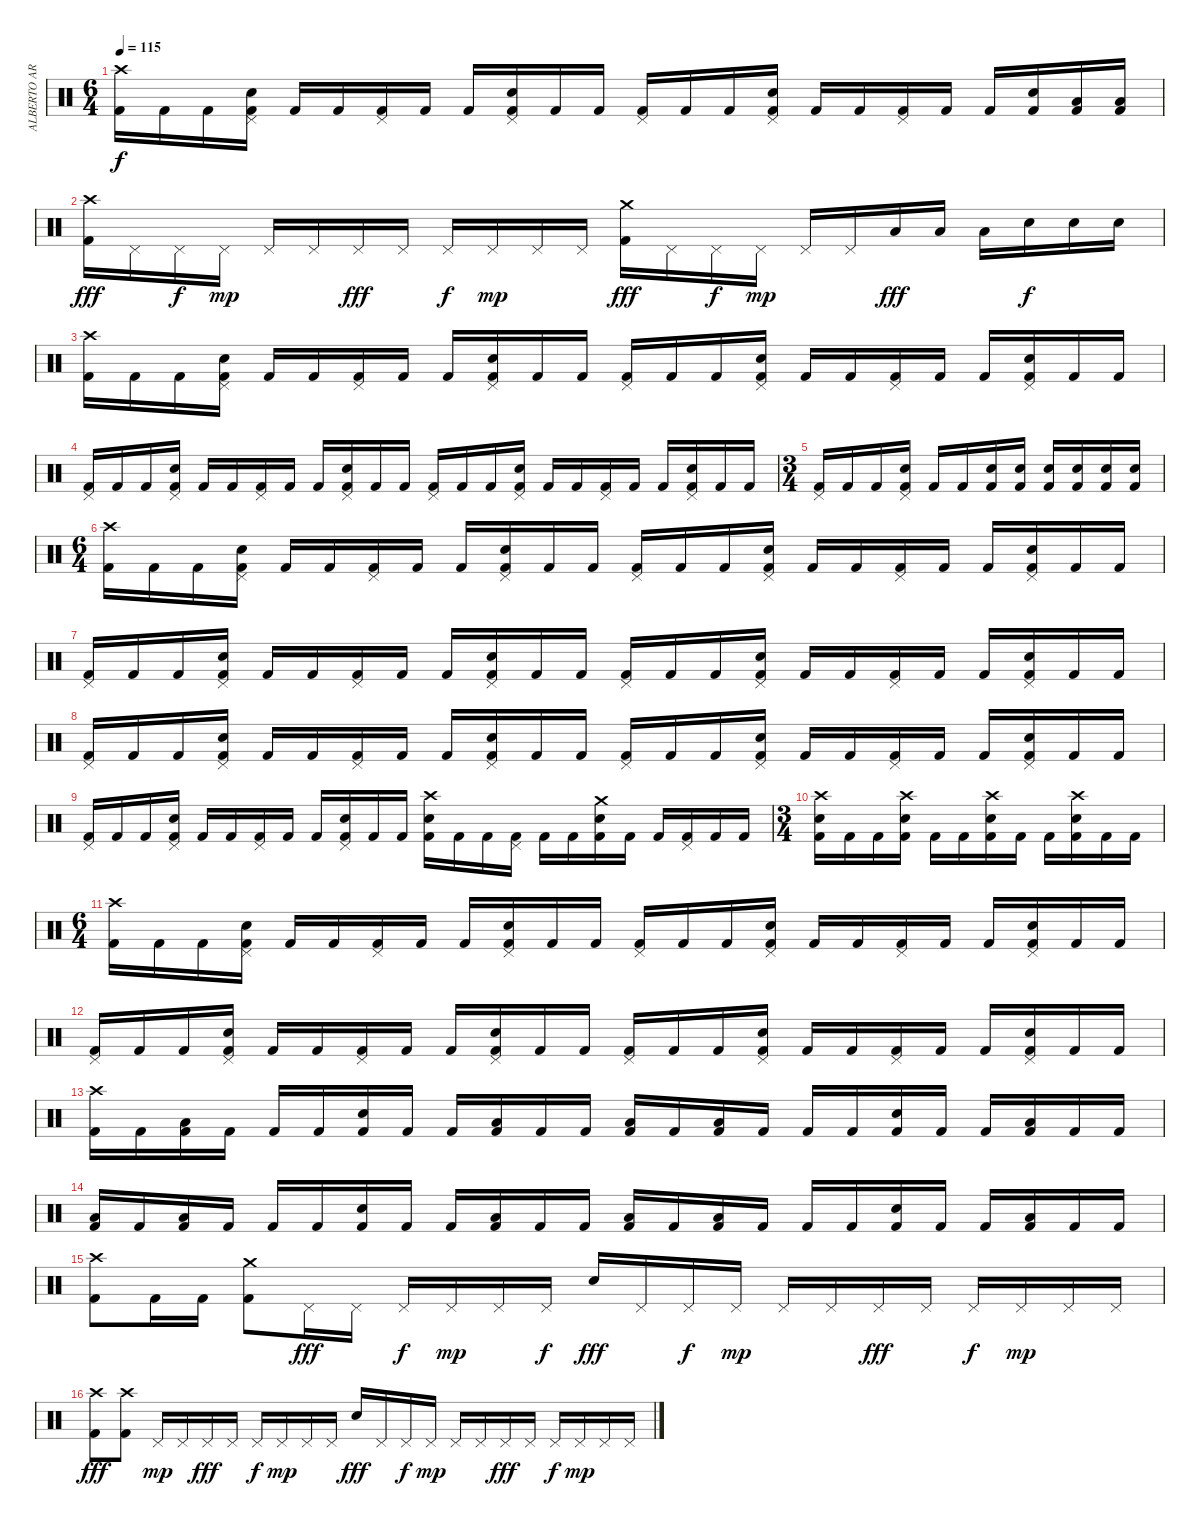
\track ("ALBERTO ARDINES" "ALBERTO AR") {instrument percussion}
\staff {score}
\articulation defaults
\ts (6 4)
\tempo 115
\clef neutral
\ks c
("Crash high (hit)" "Kick (hit) 2").16{dy f} "Kick (hit) 2".16 "Kick (hit) 2".16 ("Pedal Hi-Hat (hit)" "Electric Snare (hit)" "Kick (hit) 2").16 "Kick (hit) 2".16 "Kick (hit) 2".16 ("Pedal Hi-Hat (hit)" "Kick (hit) 2").16 "Kick (hit) 2".16 "Kick (hit) 2".16 ("Pedal Hi-Hat (hit)" "Electric Snare (hit)" "Kick (hit) 2").16 "Kick (hit) 2".16 "Kick (hit) 2".16 ("Pedal Hi-Hat (hit)" "Kick (hit) 2").16 "Kick (hit) 2".16 "Kick (hit) 2".16 ("Pedal Hi-Hat (hit)" "Electric Snare (hit)" "Kick (hit) 2").16 "Kick (hit) 2".16 "Kick (hit) 2".16 ("Pedal Hi-Hat (hit)" "Kick (hit) 2").16 "Kick (hit) 2".16 "Kick (hit) 2".16 ("Electric Snare (hit)" "Kick (hit) 2").16 ("Low Tom (hit)" "Kick (hit) 2").16 ("Low Tom (hit)" "Kick (hit) 2").16 |
("Crash high (hit)" "Kick (hit) 2").16{dy fff} "Pedal Hi-Hat (hit)".16 "Pedal Hi-Hat (hit)".16{dy f} "Pedal Hi-Hat (hit)".16{dy mp} "Pedal Hi-Hat (hit)".16 "Pedal Hi-Hat (hit)".16 "Pedal Hi-Hat (hit)".16{dy fff} "Pedal Hi-Hat (hit)".16 "Pedal Hi-Hat (hit)".16{dy f} "Pedal Hi-Hat (hit)".16{dy mp} "Pedal Hi-Hat (hit)".16 "Pedal Hi-Hat (hit)".16 ("Crash medium (hit)" "Kick (hit) 2").16{dy fff} "Pedal Hi-Hat (hit)".16 "Pedal Hi-Hat (hit)".16{dy f} "Pedal Hi-Hat (hit)".16{dy mp} "Pedal Hi-Hat (hit)".16 "Pedal Hi-Hat (hit)".16 "Low Tom (hit)".16{dy fff} "Low Tom (hit)".16 "Low Tom (hit)".16 "Electric Snare (hit)".16{dy f} "Electric Snare (hit)".16 "Electric Snare (hit)".16 |
("Crash high (hit)" "Kick (hit) 2").16 "Kick (hit) 2".16 "Kick (hit) 2".16 ("Pedal Hi-Hat (hit)" "Electric Snare (hit)" "Kick (hit) 2").16 "Kick (hit) 2".16 "Kick (hit) 2".16 ("Pedal Hi-Hat (hit)" "Kick (hit) 2").16 "Kick (hit) 2".16 "Kick (hit) 2".16 ("Pedal Hi-Hat (hit)" "Electric Snare (hit)" "Kick (hit) 2").16 "Kick (hit) 2".16 "Kick (hit) 2".16 ("Pedal Hi-Hat (hit)" "Kick (hit) 2").16 "Kick (hit) 2".16 "Kick (hit) 2".16 ("Pedal Hi-Hat (hit)" "Electric Snare (hit)" "Kick (hit) 2").16 "Kick (hit) 2".16 "Kick (hit) 2".16 ("Pedal Hi-Hat (hit)" "Kick (hit) 2").16 "Kick (hit) 2".16 "Kick (hit) 2".16 ("Pedal Hi-Hat (hit)" "Electric Snare (hit)" "Kick (hit) 2").16 "Kick (hit) 2".16 "Kick (hit) 2".16 |
("Pedal Hi-Hat (hit)" "Kick (hit) 2").16 "Kick (hit) 2".16 "Kick (hit) 2".16 ("Pedal Hi-Hat (hit)" "Electric Snare (hit)" "Kick (hit) 2").16 "Kick (hit) 2".16 "Kick (hit) 2".16 ("Pedal Hi-Hat (hit)" "Kick (hit) 2").16 "Kick (hit) 2".16 "Kick (hit) 2".16 ("Pedal Hi-Hat (hit)" "Electric Snare (hit)" "Kick (hit) 2").16 "Kick (hit) 2".16 "Kick (hit) 2".16 ("Pedal Hi-Hat (hit)" "Kick (hit) 2").16 "Kick (hit) 2".16 "Kick (hit) 2".16 ("Pedal Hi-Hat (hit)" "Electric Snare (hit)" "Kick (hit) 2").16 "Kick (hit) 2".16 "Kick (hit) 2".16 ("Pedal Hi-Hat (hit)" "Kick (hit) 2").16 "Kick (hit) 2".16 "Kick (hit) 2".16 ("Pedal Hi-Hat (hit)" "Electric Snare (hit)" "Kick (hit) 2").16 "Kick (hit) 2".16 "Kick (hit) 2".16 |
\ts (3 4)
("Pedal Hi-Hat (hit)" "Kick (hit) 2").16 "Kick (hit) 2".16 "Kick (hit) 2".16 ("Pedal Hi-Hat (hit)" "Electric Snare (hit)" "Kick (hit) 2").16 "Kick (hit) 2".16 "Kick (hit) 2".16 ("Electric Snare (hit)" "Kick (hit) 2").16 ("Electric Snare (hit)" "Kick (hit) 2").16 ("Electric Snare (hit)" "Kick (hit) 2").16 ("Electric Snare (hit)" "Kick (hit) 2").16 ("Electric Snare (hit)" "Kick (hit) 2").16 ("Electric Snare (hit)" "Kick (hit) 2").16 |
\ts (6 4)
("Crash high (hit)" "Kick (hit) 2").16 "Kick (hit) 2".16 "Kick (hit) 2".16 ("Pedal Hi-Hat (hit)" "Electric Snare (hit)" "Kick (hit) 2").16 "Kick (hit) 2".16 "Kick (hit) 2".16 ("Pedal Hi-Hat (hit)" "Kick (hit) 2").16 "Kick (hit) 2".16 "Kick (hit) 2".16 ("Pedal Hi-Hat (hit)" "Electric Snare (hit)" "Kick (hit) 2").16 "Kick (hit) 2".16 "Kick (hit) 2".16 ("Pedal Hi-Hat (hit)" "Kick (hit) 2").16 "Kick (hit) 2".16 "Kick (hit) 2".16 ("Pedal Hi-Hat (hit)" "Electric Snare (hit)" "Kick (hit) 2").16 "Kick (hit) 2".16 "Kick (hit) 2".16 ("Pedal Hi-Hat (hit)" "Kick (hit) 2").16 "Kick (hit) 2".16 "Kick (hit) 2".16 ("Pedal Hi-Hat (hit)" "Electric Snare (hit)" "Kick (hit) 2").16 "Kick (hit) 2".16 "Kick (hit) 2".16 |
("Pedal Hi-Hat (hit)" "Kick (hit) 2").16 "Kick (hit) 2".16 "Kick (hit) 2".16 ("Pedal Hi-Hat (hit)" "Electric Snare (hit)" "Kick (hit) 2").16 "Kick (hit) 2".16 "Kick (hit) 2".16 ("Pedal Hi-Hat (hit)" "Kick (hit) 2").16 "Kick (hit) 2".16 "Kick (hit) 2".16 ("Pedal Hi-Hat (hit)" "Electric Snare (hit)" "Kick (hit) 2").16 "Kick (hit) 2".16 "Kick (hit) 2".16 ("Pedal Hi-Hat (hit)" "Kick (hit) 2").16 "Kick (hit) 2".16 "Kick (hit) 2".16 ("Pedal Hi-Hat (hit)" "Electric Snare (hit)" "Kick (hit) 2").16 "Kick (hit) 2".16 "Kick (hit) 2".16 ("Pedal Hi-Hat (hit)" "Kick (hit) 2").16 "Kick (hit) 2".16 "Kick (hit) 2".16 ("Pedal Hi-Hat (hit)" "Electric Snare (hit)" "Kick (hit) 2").16 "Kick (hit) 2".16 "Kick (hit) 2".16 |
("Pedal Hi-Hat (hit)" "Kick (hit) 2").16 "Kick (hit) 2".16 "Kick (hit) 2".16 ("Pedal Hi-Hat (hit)" "Electric Snare (hit)" "Kick (hit) 2").16 "Kick (hit) 2".16 "Kick (hit) 2".16 ("Pedal Hi-Hat (hit)" "Kick (hit) 2").16 "Kick (hit) 2".16 "Kick (hit) 2".16 ("Pedal Hi-Hat (hit)" "Electric Snare (hit)" "Kick (hit) 2").16 "Kick (hit) 2".16 "Kick (hit) 2".16 ("Pedal Hi-Hat (hit)" "Kick (hit) 2").16 "Kick (hit) 2".16 "Kick (hit) 2".16 ("Pedal Hi-Hat (hit)" "Electric Snare (hit)" "Kick (hit) 2").16 "Kick (hit) 2".16 "Kick (hit) 2".16 ("Pedal Hi-Hat (hit)" "Kick (hit) 2").16 "Kick (hit) 2".16 "Kick (hit) 2".16 ("Pedal Hi-Hat (hit)" "Electric Snare (hit)" "Kick (hit) 2").16 "Kick (hit) 2".16 "Kick (hit) 2".16 |
("Pedal Hi-Hat (hit)" "Kick (hit) 2").16 "Kick (hit) 2".16 "Kick (hit) 2".16 ("Pedal Hi-Hat (hit)" "Electric Snare (hit)" "Kick (hit) 2").16 "Kick (hit) 2".16 "Kick (hit) 2".16 ("Pedal Hi-Hat (hit)" "Kick (hit) 2").16 "Kick (hit) 2".16 "Kick (hit) 2".16 ("Pedal Hi-Hat (hit)" "Electric Snare (hit)" "Kick (hit) 2").16 "Kick (hit) 2".16 "Kick (hit) 2".16 ("Crash high (hit)" "Electric Snare (hit)" "Kick (hit) 2").16 "Kick (hit) 2".16 "Kick (hit) 2".16 ("Pedal Hi-Hat (hit)" "Kick (hit) 2").16 "Kick (hit) 2".16 "Kick (hit) 2".16 ("Crash medium (hit)" "Electric Snare (hit)" "Kick (hit) 2").16 "Kick (hit) 2".16 "Kick (hit) 2".16 ("Pedal Hi-Hat (hit)" "Kick (hit) 2").16 "Kick (hit) 2".16 "Kick (hit) 2".16 |
\ts (3 4)
("Crash high (hit)" "Electric Snare (hit)" "Kick (hit) 2").16 "Kick (hit) 2".16 "Kick (hit) 2".16 ("Crash high (hit)" "Electric Snare (hit)" "Kick (hit) 2").16 "Kick (hit) 2".16 "Kick (hit) 2".16 ("Crash high (hit)" "Electric Snare (hit)" "Kick (hit) 2").16 "Kick (hit) 2".16 "Kick (hit) 2".16 ("Crash high (hit)" "Electric Snare (hit)" "Kick (hit) 2").16 "Kick (hit) 2".16 "Kick (hit) 2".16 |
\ts (6 4)
("Crash high (hit)" "Kick (hit) 2").16 "Kick (hit) 2".16 "Kick (hit) 2".16 ("Pedal Hi-Hat (hit)" "Electric Snare (hit)" "Kick (hit) 2").16 "Kick (hit) 2".16 "Kick (hit) 2".16 ("Pedal Hi-Hat (hit)" "Kick (hit) 2").16 "Kick (hit) 2".16 "Kick (hit) 2".16 ("Pedal Hi-Hat (hit)" "Electric Snare (hit)" "Kick (hit) 2").16 "Kick (hit) 2".16 "Kick (hit) 2".16 ("Pedal Hi-Hat (hit)" "Kick (hit) 2").16 "Kick (hit) 2".16 "Kick (hit) 2".16 ("Pedal Hi-Hat (hit)" "Electric Snare (hit)" "Kick (hit) 2").16 "Kick (hit) 2".16 "Kick (hit) 2".16 ("Pedal Hi-Hat (hit)" "Kick (hit) 2").16 "Kick (hit) 2".16 "Kick (hit) 2".16 ("Pedal Hi-Hat (hit)" "Electric Snare (hit)" "Kick (hit) 2").16 "Kick (hit) 2".16 "Kick (hit) 2".16 |
("Pedal Hi-Hat (hit)" "Kick (hit) 2").16 "Kick (hit) 2".16 "Kick (hit) 2".16 ("Pedal Hi-Hat (hit)" "Electric Snare (hit)" "Kick (hit) 2").16 "Kick (hit) 2".16 "Kick (hit) 2".16 ("Pedal Hi-Hat (hit)" "Kick (hit) 2").16 "Kick (hit) 2".16 "Kick (hit) 2".16 ("Pedal Hi-Hat (hit)" "Electric Snare (hit)" "Kick (hit) 2").16 "Kick (hit) 2".16 "Kick (hit) 2".16 ("Pedal Hi-Hat (hit)" "Kick (hit) 2").16 "Kick (hit) 2".16 "Kick (hit) 2".16 ("Pedal Hi-Hat (hit)" "Electric Snare (hit)" "Kick (hit) 2").16 "Kick (hit) 2".16 "Kick (hit) 2".16 ("Pedal Hi-Hat (hit)" "Kick (hit) 2").16 "Kick (hit) 2".16 "Kick (hit) 2".16 ("Pedal Hi-Hat (hit)" "Electric Snare (hit)" "Kick (hit) 2").16 "Kick (hit) 2".16 "Kick (hit) 2".16 |
("Crash high (hit)" "Kick (hit) 2").16 "Kick (hit) 2".16 ("Low Tom (hit)" "Kick (hit) 2").16 "Kick (hit) 2".16 "Kick (hit) 2".16 "Kick (hit) 2".16 ("Electric Snare (hit)" "Kick (hit) 2").16 "Kick (hit) 2".16 "Kick (hit) 2".16 ("Low Tom (hit)" "Kick (hit) 2").16 "Kick (hit) 2".16 "Kick (hit) 2".16 ("Low Floor Tom (hit)" "Kick (hit) 2").16 "Kick (hit) 2".16 ("Low Tom (hit)" "Kick (hit) 2").16 "Kick (hit) 2".16 "Kick (hit) 2".16 "Kick (hit) 2".16 ("Electric Snare (hit)" "Kick (hit) 2").16 "Kick (hit) 2".16 "Kick (hit) 2".16 ("Low Tom (hit)" "Kick (hit) 2").16 "Kick (hit) 2".16 "Kick (hit) 2".16 |
("Low Floor Tom (hit)" "Kick (hit) 2").16 "Kick (hit) 2".16 ("Low Tom (hit)" "Kick (hit) 2").16 "Kick (hit) 2".16 "Kick (hit) 2".16 "Kick (hit) 2".16 ("Electric Snare (hit)" "Kick (hit) 2").16 "Kick (hit) 2".16 "Kick (hit) 2".16 ("Low Tom (hit)" "Kick (hit) 2").16 "Kick (hit) 2".16 "Kick (hit) 2".16 ("Low Floor Tom (hit)" "Kick (hit) 2").16 "Kick (hit) 2".16 ("Low Tom (hit)" "Kick (hit) 2").16 "Kick (hit) 2".16 "Kick (hit) 2".16 "Kick (hit) 2".16 ("Electric Snare (hit)" "Kick (hit) 2").16 "Kick (hit) 2".16 "Kick (hit) 2".16 ("Low Tom (hit)" "Kick (hit) 2").16 "Kick (hit) 2".16 "Kick (hit) 2".16 |
("Crash high (hit)" "Kick (hit) 2").8 "Kick (hit) 2".16 "Kick (hit) 2".16 ("Crash medium (hit)" "Kick (hit) 2").8 "Pedal Hi-Hat (hit)".16{dy fff} "Pedal Hi-Hat (hit)".16 "Pedal Hi-Hat (hit)".16{dy f} "Pedal Hi-Hat (hit)".16{dy mp} "Pedal Hi-Hat (hit)".16 "Pedal Hi-Hat (hit)".16{dy f} "Electric Snare (hit)".16{dy fff} "Pedal Hi-Hat (hit)".16 "Pedal Hi-Hat (hit)".16{dy f} "Pedal Hi-Hat (hit)".16{dy mp} "Pedal Hi-Hat (hit)".16 "Pedal Hi-Hat (hit)".16 "Pedal Hi-Hat (hit)".16{dy fff} "Pedal Hi-Hat (hit)".16 "Pedal Hi-Hat (hit)".16{dy f} "Pedal Hi-Hat (hit)".16{dy mp} "Pedal Hi-Hat (hit)".16 "Pedal Hi-Hat (hit)".16 |
("Crash high (hit)" "Kick (hit) 2").8{dy fff} ("Crash high (hit)" "Kick (hit) 2").8 "Pedal Hi-Hat (hit)".16{dy mp} "Pedal Hi-Hat (hit)".16 "Pedal Hi-Hat (hit)".16{dy fff} "Pedal Hi-Hat (hit)".16 "Pedal Hi-Hat (hit)".16{dy f} "Pedal Hi-Hat (hit)".16{dy mp} "Pedal Hi-Hat (hit)".16 "Pedal Hi-Hat (hit)".16 "Electric Snare (hit)".16{dy fff} "Pedal Hi-Hat (hit)".16 "Pedal Hi-Hat (hit)".16{dy f} "Pedal Hi-Hat (hit)".16{dy mp} "Pedal Hi-Hat (hit)".16 "Pedal Hi-Hat (hit)".16 "Pedal Hi-Hat (hit)".16{dy fff} "Pedal Hi-Hat (hit)".16 "Pedal Hi-Hat (hit)".16{dy f} "Pedal Hi-Hat (hit)".16{dy mp} "Pedal Hi-Hat (hit)".16 "Pedal Hi-Hat (hit)".16
